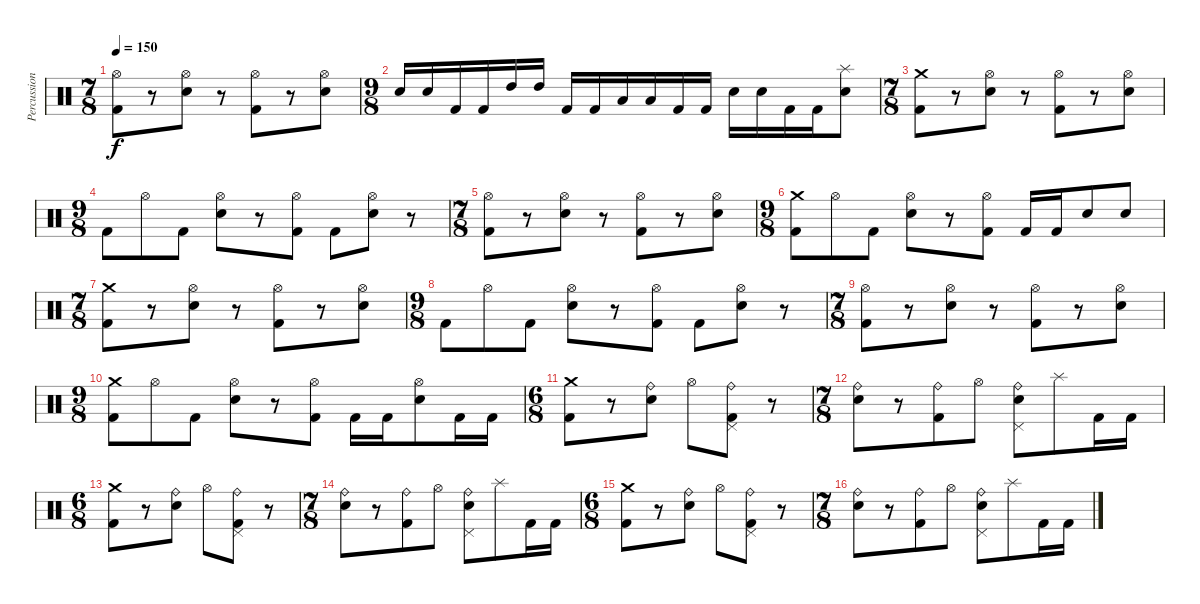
\track ("Percussions" "Percussion") {instrument percussion}
\staff {score}
\articulation defaults
\ts (7 8)
\tempo 150
\clef neutral
\ks c
("Hi-Hat (open)" "Kick (hit) 2").8{dy f} r.8 ("Hi-Hat (open)" "Snare (hit) 2").8 r.8 ("Hi-Hat (open)" "Kick (hit) 2").8 r.8 ("Hi-Hat (open)" "Snare (hit) 2").8 |
\ts (9 8)
"Snare (hit) 2".16 "Snare (hit) 2".16 "Kick (hit) 2".16 "Kick (hit) 2".16 "High Tom (hit)".16 "High Tom (hit)".16 "Kick (hit) 2".16 "Kick (hit) 2".16 "Low Tom (hit)".16 "Low Tom (hit)".16 "Kick (hit) 2".16 "Kick (hit) 2".16 "Snare (hit) 2".16 "Snare (hit) 2".16 "Kick (hit) 2".16 "Kick (hit) 2".16 ("Splash (hit)" "Snare (hit) 2").8 |
\ts (7 8)
("Crash medium (hit)" "Kick (hit) 2").8 r.8 ("Hi-Hat (open)" "Snare (hit) 2").8 r.8 ("Hi-Hat (open)" "Kick (hit) 2").8 r.8 ("Hi-Hat (open)" "Snare (hit) 2").8 |
\ts (9 8)
"Kick (hit) 2".8 "Hi-Hat (open)".8 "Kick (hit) 2".8 ("Hi-Hat (open)" "Snare (hit) 2").8 r.8 ("Hi-Hat (open)" "Kick (hit) 2").8 "Kick (hit) 2".8 ("Hi-Hat (open)" "Snare (hit) 2").8 r.8 |
\ts (7 8)
("Hi-Hat (open)" "Kick (hit) 2").8 r.8 ("Hi-Hat (open)" "Snare (hit) 2").8 r.8 ("Hi-Hat (open)" "Kick (hit) 2").8 r.8 ("Hi-Hat (open)" "Snare (hit) 2").8 |
\ts (9 8)
("Crash medium (hit)" "Kick (hit) 2").8 "Hi-Hat (open)".8 "Kick (hit) 2".8 ("Hi-Hat (open)" "Snare (hit) 2").8 r.8 ("Hi-Hat (open)" "Kick (hit) 2").8 "Kick (hit) 2".16 "Kick (hit) 2".16 "Snare (hit) 2".8 "Snare (hit) 2".8 |
\ts (7 8)
("Crash medium (hit)" "Kick (hit) 2").8 r.8 ("Hi-Hat (open)" "Snare (hit) 2").8 r.8 ("Hi-Hat (open)" "Kick (hit) 2").8 r.8 ("Hi-Hat (open)" "Snare (hit) 2").8 |
\ts (9 8)
"Kick (hit) 2".8 "Hi-Hat (open)".8 "Kick (hit) 2".8 ("Hi-Hat (open)" "Snare (hit) 2").8 r.8 ("Hi-Hat (open)" "Kick (hit) 2").8 "Kick (hit) 2".8 ("Hi-Hat (open)" "Snare (hit) 2").8 r.8 |
\ts (7 8)
("Hi-Hat (open)" "Kick (hit) 2").8 r.8 ("Hi-Hat (open)" "Snare (hit) 2").8 r.8 ("Hi-Hat (open)" "Kick (hit) 2").8 r.8 ("Hi-Hat (open)" "Snare (hit) 2").8 |
\ts (9 8)
("Crash medium (hit)" "Kick (hit) 2").8 "Hi-Hat (open)".8 "Kick (hit) 2".8 ("Hi-Hat (open)" "Snare (hit) 2").8 r.8 ("Hi-Hat (open)" "Kick (hit) 2").8 "Kick (hit) 2".16 "Kick (hit) 2".16 ("Hi-Hat (open)" "Snare (hit) 2").8 "Kick (hit) 2".16 "Kick (hit) 2".16 |
\ts (6 8)
("Crash medium (hit)" "Kick (hit) 2").8 r.8 ("Ride (bell)" "Snare (hit) 2").8 "Hi-Hat (open)".8 ("Ride (bell)" "Pedal Hi-Hat (hit)" "Kick (hit) 2").8 r.8 |
\ts (7 8)
("Ride (bell)" "Snare (hit) 2").8 r.8 ("Ride (bell)" "Kick (hit) 2").8 "Hi-Hat (open)".8 ("Ride (bell)" "Pedal Hi-Hat (hit)" "Snare (hit) 2").8 "Splash (hit)".8 "Kick (hit) 2".16 "Kick (hit) 2".16 |
\ts (6 8)
("Crash medium (hit)" "Kick (hit) 2").8 r.8 ("Ride (bell)" "Snare (hit) 2").8 "Hi-Hat (open)".8 ("Ride (bell)" "Pedal Hi-Hat (hit)" "Kick (hit) 2").8 r.8 |
\ts (7 8)
("Ride (bell)" "Snare (hit) 2").8 r.8 ("Ride (bell)" "Kick (hit) 2").8 "Hi-Hat (open)".8 ("Ride (bell)" "Pedal Hi-Hat (hit)" "Snare (hit) 2").8 "Splash (hit)".8 "Kick (hit) 2".16 "Kick (hit) 2".16 |
\ts (6 8)
("Crash medium (hit)" "Kick (hit) 2").8 r.8 ("Ride (bell)" "Snare (hit) 2").8 "Hi-Hat (open)".8 ("Ride (bell)" "Pedal Hi-Hat (hit)" "Kick (hit) 2").8 r.8 |
\ts (7 8)
("Ride (bell)" "Snare (hit) 2").8 r.8 ("Ride (bell)" "Kick (hit) 2").8 "Hi-Hat (open)".8 ("Ride (bell)" "Pedal Hi-Hat (hit)" "Snare (hit) 2").8 "Splash (hit)".8 "Kick (hit) 2".16 "Kick (hit) 2".16
